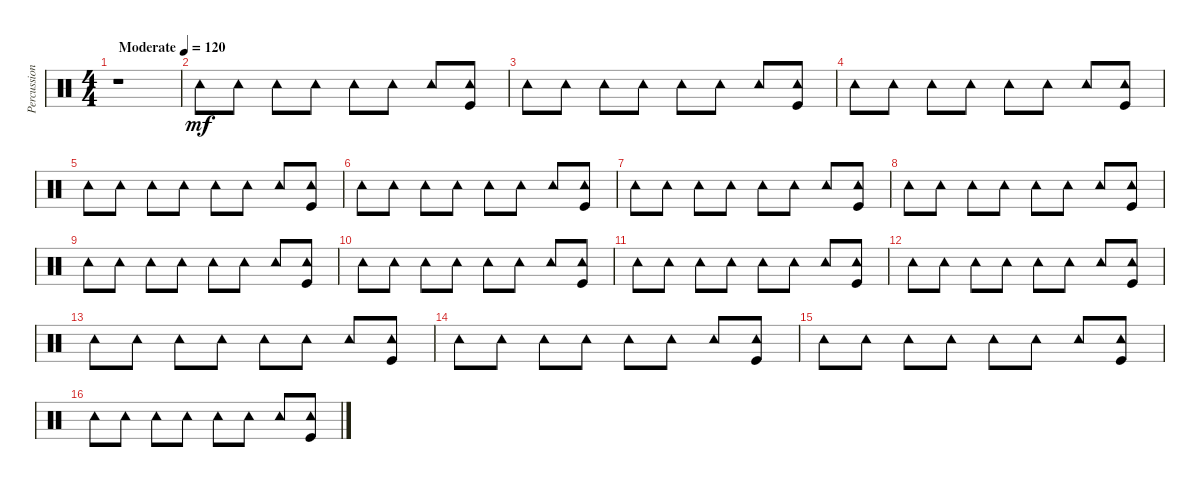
\track ("Percussions" "Percussion") {instrument percussion}
\staff {score}
\articulation defaults
\ts (4 4)
\tempo (120 "Moderate")
\tempo 100
\tempo (120 "Moderate")
\clef neutral
\ks c
r.1{dy mf} |
"Tambourine (hit)".8 "Tambourine (hit)".8 "Tambourine (hit)".8 "Tambourine (hit)".8 "Tambourine (hit)".8 "Tambourine (hit)".8 "Tambourine (hit)".8 ("Kick (hit)" "Tambourine (hit)").8 |
"Tambourine (hit)".8 "Tambourine (hit)".8 "Tambourine (hit)".8 "Tambourine (hit)".8 "Tambourine (hit)".8 "Tambourine (hit)".8 "Tambourine (hit)".8 ("Kick (hit)" "Tambourine (hit)").8 |
"Tambourine (hit)".8 "Tambourine (hit)".8 "Tambourine (hit)".8 "Tambourine (hit)".8 "Tambourine (hit)".8 "Tambourine (hit)".8 "Tambourine (hit)".8 ("Kick (hit)" "Tambourine (hit)").8 |
"Tambourine (hit)".8 "Tambourine (hit)".8 "Tambourine (hit)".8 "Tambourine (hit)".8 "Tambourine (hit)".8 "Tambourine (hit)".8 "Tambourine (hit)".8 ("Kick (hit)" "Tambourine (hit)").8 |
"Tambourine (hit)".8 "Tambourine (hit)".8 "Tambourine (hit)".8 "Tambourine (hit)".8 "Tambourine (hit)".8 "Tambourine (hit)".8 "Tambourine (hit)".8 ("Kick (hit)" "Tambourine (hit)").8 |
"Tambourine (hit)".8 "Tambourine (hit)".8 "Tambourine (hit)".8 "Tambourine (hit)".8 "Tambourine (hit)".8 "Tambourine (hit)".8 "Tambourine (hit)".8 ("Tambourine (hit)" "Kick (hit)").8 |
"Tambourine (hit)".8 "Tambourine (hit)".8 "Tambourine (hit)".8 "Tambourine (hit)".8 "Tambourine (hit)".8 "Tambourine (hit)".8 "Tambourine (hit)".8 ("Tambourine (hit)" "Kick (hit)").8 |
"Tambourine (hit)".8 "Tambourine (hit)".8 "Tambourine (hit)".8 "Tambourine (hit)".8 "Tambourine (hit)".8 "Tambourine (hit)".8 "Tambourine (hit)".8 ("Kick (hit)" "Tambourine (hit)").8 |
"Tambourine (hit)".8 "Tambourine (hit)".8 "Tambourine (hit)".8 "Tambourine (hit)".8 "Tambourine (hit)".8 "Tambourine (hit)".8 "Tambourine (hit)".8 ("Tambourine (hit)" "Kick (hit)").8 |
"Tambourine (hit)".8 "Tambourine (hit)".8 "Tambourine (hit)".8 "Tambourine (hit)".8 "Tambourine (hit)".8 "Tambourine (hit)".8 "Tambourine (hit)".8 ("Tambourine (hit)" "Kick (hit)").8 |
"Tambourine (hit)".8 "Tambourine (hit)".8 "Tambourine (hit)".8 "Tambourine (hit)".8 "Tambourine (hit)".8 "Tambourine (hit)".8 "Tambourine (hit)".8 ("Kick (hit)" "Tambourine (hit)").8 |
"Tambourine (hit)".8 "Tambourine (hit)".8 "Tambourine (hit)".8 "Tambourine (hit)".8 "Tambourine (hit)".8 "Tambourine (hit)".8 "Tambourine (hit)".8 ("Tambourine (hit)" "Kick (hit)").8 |
"Tambourine (hit)".8 "Tambourine (hit)".8 "Tambourine (hit)".8 "Tambourine (hit)".8 "Tambourine (hit)".8 "Tambourine (hit)".8 "Tambourine (hit)".8 ("Kick (hit)" "Tambourine (hit)").8 |
"Tambourine (hit)".8 "Tambourine (hit)".8 "Tambourine (hit)".8 "Tambourine (hit)".8 "Tambourine (hit)".8 "Tambourine (hit)".8 "Tambourine (hit)".8 ("Kick (hit)" "Tambourine (hit)").8 |
"Tambourine (hit)".8 "Tambourine (hit)".8 "Tambourine (hit)".8 "Tambourine (hit)".8 "Tambourine (hit)".8 "Tambourine (hit)".8 "Tambourine (hit)".8 ("Kick (hit)" "Tambourine (hit)").8
